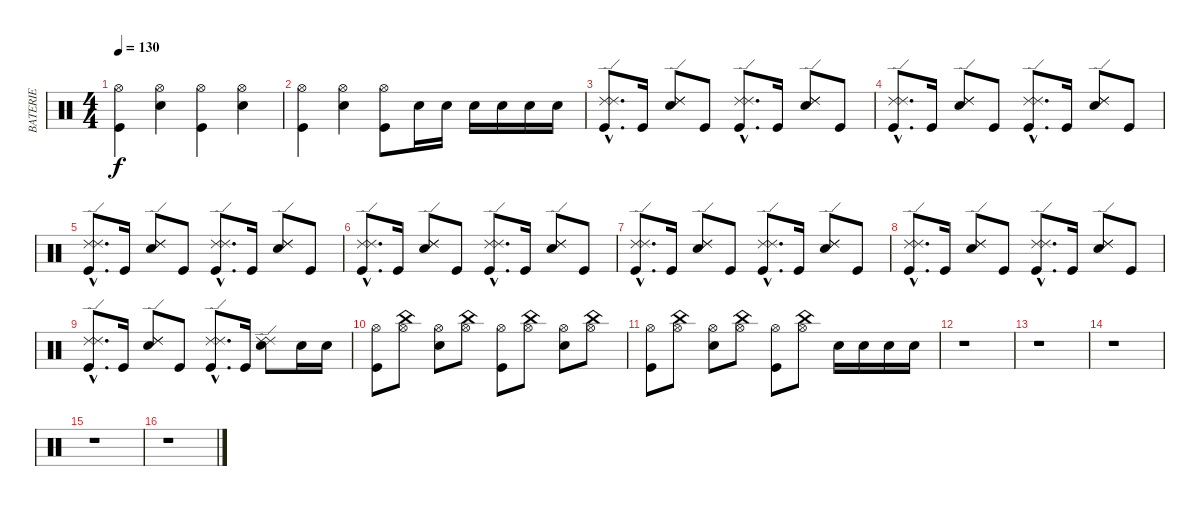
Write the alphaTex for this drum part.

\track ("BATERIE" "BATERIE") {instrument percussion}
\staff {score}
\articulation defaults
\ts (4 4)
\tempo 130
\clef neutral
\ks c
("Hi-Hat (open)" "Kick (hit)").4{dy f} ("Hi-Hat (open)" "Snare (hit) 2").4 ("Hi-Hat (open)" "Kick (hit)").4 ("Hi-Hat (open)" "Snare (hit) 2").4 |
("Hi-Hat (open)" "Kick (hit)").4 ("Hi-Hat (open)" "Snare (hit) 2").4 ("Hi-Hat (open)" "Kick (hit)").8 "Snare (hit) 2".16 "Snare (hit) 2".16 "Snare (hit) 2".16 "Snare (hit) 2".16 "Snare (hit) 2".16 "Snare (hit) 2".16 |
("Ride (edge) 2"{hac} "Ride (edge) 2"{hac} "Kick (hit)"{hac}).8{d} "Kick (hit)".16 ("Ride (edge) 2" "Ride (edge) 2" "Snare (hit) 2").8 "Kick (hit)".8 ("Ride (edge) 2"{hac} "Ride (edge) 2"{hac} "Kick (hit)"{hac}).8{d} "Kick (hit)".16 ("Ride (edge) 2" "Ride (edge) 2" "Snare (hit) 2").8 "Kick (hit)".8 |
("Ride (edge) 2"{hac} "Ride (edge) 2"{hac} "Kick (hit)"{hac}).8{d} "Kick (hit)".16 ("Ride (edge) 2" "Ride (edge) 2" "Snare (hit) 2").8 "Kick (hit)".8 ("Ride (edge) 2"{hac} "Ride (edge) 2"{hac} "Kick (hit)"{hac}).8{d} "Kick (hit)".16 ("Ride (edge) 2" "Ride (edge) 2" "Snare (hit) 2").8 "Kick (hit)".8 |
("Ride (edge) 2"{hac} "Ride (edge) 2"{hac} "Kick (hit)"{hac}).8{d} "Kick (hit)".16 ("Ride (edge) 2" "Ride (edge) 2" "Snare (hit) 2").8 "Kick (hit)".8 ("Ride (edge) 2"{hac} "Ride (edge) 2"{hac} "Kick (hit)"{hac}).8{d} "Kick (hit)".16 ("Ride (edge) 2" "Ride (edge) 2" "Snare (hit) 2").8 "Kick (hit)".8 |
("Ride (edge) 2"{hac} "Ride (edge) 2"{hac} "Kick (hit)"{hac}).8{d} "Kick (hit)".16 ("Ride (edge) 2" "Ride (edge) 2" "Snare (hit) 2").8 "Kick (hit)".8 ("Ride (edge) 2"{hac} "Ride (edge) 2"{hac} "Kick (hit)"{hac}).8{d} "Kick (hit)".16 ("Ride (edge) 2" "Ride (edge) 2" "Snare (hit) 2").8 "Kick (hit)".8 |
("Ride (edge) 2"{hac} "Ride (edge) 2"{hac} "Kick (hit)"{hac}).8{d} "Kick (hit)".16 ("Ride (edge) 2" "Ride (edge) 2" "Snare (hit) 2").8 "Kick (hit)".8 ("Ride (edge) 2"{hac} "Ride (edge) 2"{hac} "Kick (hit)"{hac}).8{d} "Kick (hit)".16 ("Ride (edge) 2" "Ride (edge) 2" "Snare (hit) 2").8 "Kick (hit)".8 |
("Ride (edge) 2"{hac} "Ride (edge) 2"{hac} "Kick (hit)"{hac}).8{d} "Kick (hit)".16 ("Ride (edge) 2" "Ride (edge) 2" "Snare (hit) 2").8 "Kick (hit)".8 ("Ride (edge) 2"{hac} "Ride (edge) 2"{hac} "Kick (hit)"{hac}).8{d} "Kick (hit)".16 ("Ride (edge) 2" "Ride (edge) 2" "Snare (hit) 2").8 "Kick (hit)".8 |
("Ride (edge) 2"{hac} "Ride (edge) 2"{hac} "Kick (hit)"{hac}).8{d} "Kick (hit)".16 ("Ride (edge) 2" "Ride (edge) 2" "Snare (hit) 2").8 "Kick (hit)".8 ("Ride (edge) 2"{hac} "Ride (edge) 2"{hac} "Kick (hit)"{hac}).8{d} "Kick (hit)".16 ("Ride (edge) 2" "Ride (edge) 2" "Snare (hit) 2").8 "Snare (hit) 2".16 "Snare (hit) 2".16 |
("Hi-Hat (open)" "Kick (hit)").8 ("Hi-Hat (open)" "China (hit)").8 ("Hi-Hat (open)" "Snare (hit) 2").8 ("Hi-Hat (open)" "China (hit)").8 ("Hi-Hat (open)" "Kick (hit)").8 ("Hi-Hat (open)" "China (hit)").8 ("Hi-Hat (open)" "Snare (hit) 2").8 ("Hi-Hat (open)" "China (hit)").8 |
("Hi-Hat (open)" "Kick (hit)").8 ("Hi-Hat (open)" "China (hit)").8 ("Hi-Hat (open)" "Snare (hit) 2").8 ("Hi-Hat (open)" "China (hit)").8 ("Hi-Hat (open)" "Kick (hit)").8 ("Hi-Hat (open)" "China (hit)").8 "Snare (hit) 2".16 "Snare (hit) 2".16 "Snare (hit) 2".16 "Snare (hit) 2".16 |
r.1 |
r.1 |
r.1 |
r.1 |
r.1
